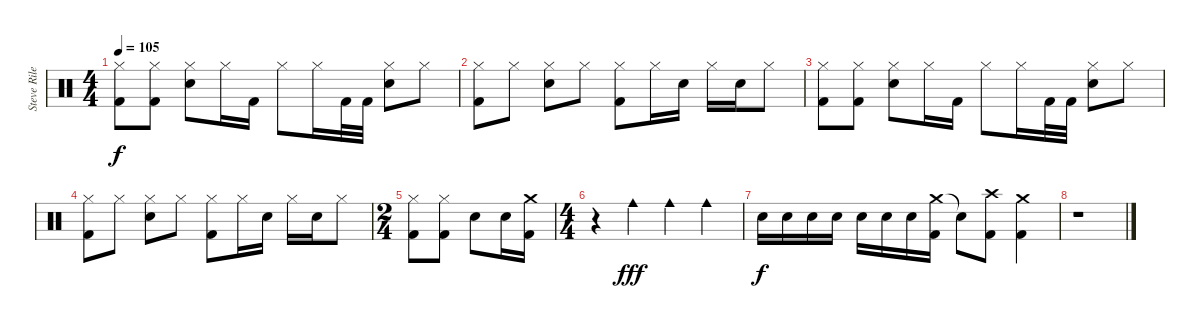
\track ("Steve Riley" "Steve Rile") {instrument percussion}
\staff {score}
\articulation defaults
\ts (4 4)
\tempo 105
\clef neutral
\ks c
("Hi-Hat (closed)" "Kick (hit) 2").8{dy f} ("Hi-Hat (closed)" "Kick (hit) 2").8 ("Hi-Hat (closed)" "Snare (hit) 2").8 "Hi-Hat (closed)".16 "Kick (hit) 2".16 "Hi-Hat (closed)".8 "Hi-Hat (closed)".16 "Kick (hit) 2".32 "Kick (hit) 2".32 ("Hi-Hat (closed)" "Snare (hit) 2").8 "Hi-Hat (closed)".8 |
("Hi-Hat (closed)" "Kick (hit) 2").8 "Hi-Hat (closed)".8 ("Hi-Hat (closed)" "Snare (hit) 2").8 "Hi-Hat (closed)".8 ("Hi-Hat (closed)" "Kick (hit) 2").8 "Hi-Hat (closed)".16 "Snare (hit) 2".16 "Hi-Hat (closed)".16 "Snare (hit) 2".16 "Hi-Hat (closed)".8 |
("Hi-Hat (closed)" "Kick (hit) 2").8 ("Hi-Hat (closed)" "Kick (hit) 2").8 ("Hi-Hat (closed)" "Snare (hit) 2").8 "Hi-Hat (closed)".16 "Kick (hit) 2".16 "Hi-Hat (closed)".8 "Hi-Hat (closed)".16 "Kick (hit) 2".32 "Kick (hit) 2".32 ("Hi-Hat (closed)" "Snare (hit) 2").8 "Hi-Hat (closed)".8 |
("Hi-Hat (closed)" "Kick (hit) 2").8 "Hi-Hat (closed)".8 ("Hi-Hat (closed)" "Snare (hit) 2").8 "Hi-Hat (closed)".8 ("Hi-Hat (closed)" "Kick (hit) 2").8 "Hi-Hat (closed)".16 "Snare (hit) 2".16 "Hi-Hat (closed)".16 "Snare (hit) 2".16 "Hi-Hat (closed)".8 |
\ts (2 4)
("Hi-Hat (closed)" "Kick (hit) 2").8 ("Hi-Hat (closed)" "Kick (hit) 2").8 "Snare (hit) 2".8 "Snare (hit) 2".16 ("Crash medium (hit)" "Kick (hit) 2").16 |
\ts (4 4)
r.4 "Cowbell medium (hit)".4{dy fff} "Cowbell medium (hit)".4 "Cowbell medium (hit)".4 |
"Snare (hit) 2".16{dy f} "Snare (hit) 2".16 "Snare (hit) 2".16 "Snare (hit) 2".16 "Snare (hit) 2".16 "Snare (hit) 2".16 "Snare (hit) 2".16 ("Crash medium (hit)" "Kick (hit) 2").16 "Snare (hit)"{t}.8 ("Crash high (hit)" "Kick (hit) 2").8 ("Crash medium (hit)" "Kick (hit) 2").4 |
r.1
